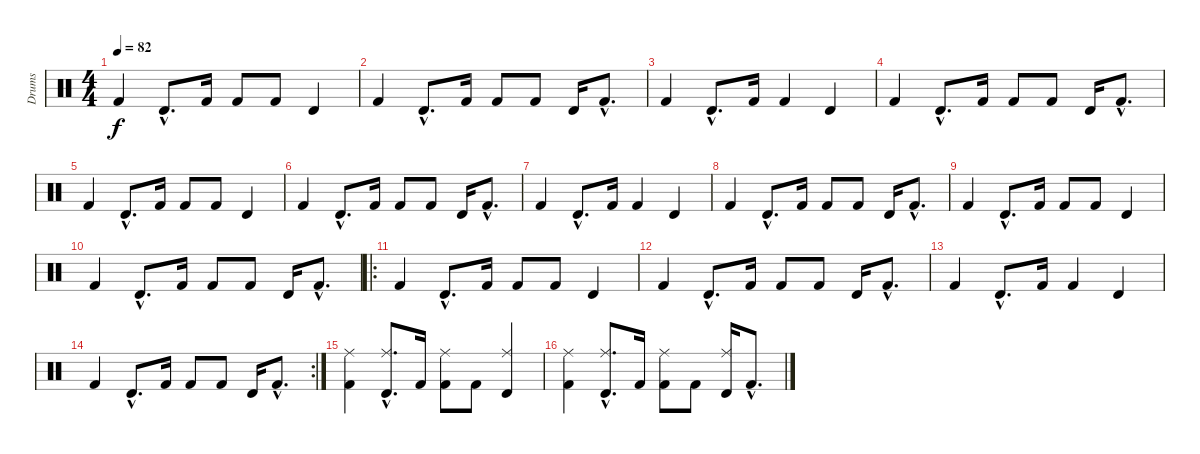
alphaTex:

\track ("Drums" "Drums") {instrument percussion}
\staff {score}
\articulation defaults
\ts (4 4)
\tempo 82
\clef neutral
\ks c "Kick (hit) 2".4{dy f} "Timbale high (hit)"{hac}.8{d} "Kick (hit) 2".16 "Kick (hit) 2".8 "Kick (hit) 2".8 "Timbale high (hit)".4
|
"Kick (hit) 2".4 "Timbale high (hit)"{hac}.8{d} "Kick (hit) 2".16 "Kick (hit) 2".8 "Kick (hit) 2".8 "Timbale high (hit)".16 "Kick (hit) 2"{hac}.8{d} |
"Kick (hit) 2".4 "Timbale high (hit)"{hac}.8{d} "Kick (hit) 2".16 "Kick (hit) 2".4 "Timbale high (hit)".4 |
"Kick (hit) 2".4 "Timbale high (hit)"{hac}.8{d} "Kick (hit) 2".16 "Kick (hit) 2".8 "Kick (hit) 2".8 "Timbale high (hit)".16 "Kick (hit) 2"{hac}.8{d} |
"Kick (hit) 2".4 "Timbale high (hit)"{hac}.8{d} "Kick (hit) 2".16 "Kick (hit) 2".8 "Kick (hit) 2".8 "Timbale high (hit)".4 |
"Kick (hit) 2".4 "Timbale high (hit)"{hac}.8{d} "Kick (hit) 2".16 "Kick (hit) 2".8 "Kick (hit) 2".8 "Timbale high (hit)".16 "Kick (hit) 2"{hac}.8{d} |
"Kick (hit) 2".4 "Timbale high (hit)"{hac}.8{d} "Kick (hit) 2".16 "Kick (hit) 2".4 "Timbale high (hit)".4 |
"Kick (hit) 2".4 "Timbale high (hit)"{hac}.8{d} "Kick (hit) 2".16 "Kick (hit) 2".8 "Kick (hit) 2".8 "Timbale high (hit)".16 "Kick (hit) 2"{hac}.8{d} |
"Kick (hit) 2".4 "Timbale high (hit)"{hac}.8{d} "Kick (hit) 2".16 "Kick (hit) 2".8 "Kick (hit) 2".8 "Timbale high (hit)".4 |
"Kick (hit) 2".4 "Timbale high (hit)"{hac}.8{d} "Kick (hit) 2".16 "Kick (hit) 2".8 "Kick (hit) 2".8 "Timbale high (hit)".16 "Kick (hit) 2"{hac}.8{d} |
\ro "Kick (hit) 2".4 "Timbale high (hit)"{hac}.8{d} "Kick (hit) 2".16 "Kick (hit) 2".8 "Kick (hit) 2".8 "Timbale high (hit)".4
|
"Kick (hit) 2".4 "Timbale high (hit)"{hac}.8{d} "Kick (hit) 2".16 "Kick (hit) 2".8 "Kick (hit) 2".8 "Timbale high (hit)".16 "Kick (hit) 2"{hac}.8{d} |
"Kick (hit) 2".4 "Timbale high (hit)"{hac}.8{d} "Kick (hit) 2".16 "Kick (hit) 2".4 "Timbale high (hit)".4 |
\rc 2 "Kick (hit) 2".4 "Timbale high (hit)"{hac}.8{d} "Kick (hit) 2".16 "Kick (hit) 2".8 "Kick (hit) 2".8 "Timbale high (hit)".16 "Kick (hit) 2"{hac}.8{d}
|
("Ride (middle)" "Kick (hit) 2").4 ("Ride (middle)"{hac} "Timbale high (hit)"{hac}).8{d} "Kick (hit) 2".16 ("Ride (middle)" "Kick (hit) 2").8 "Kick (hit) 2".8 ("Ride (middle)" "Timbale high (hit)").4 |
("Ride (middle)" "Kick (hit) 2").4 ("Ride (middle)"{hac} "Timbale high (hit)"{hac}).8{d} "Kick (hit) 2".16 ("Ride (middle)" "Kick (hit) 2").8 "Kick (hit) 2".8 ("Ride (middle)" "Timbale high (hit)").16 "Kick (hit) 2"{hac}.8{d}
